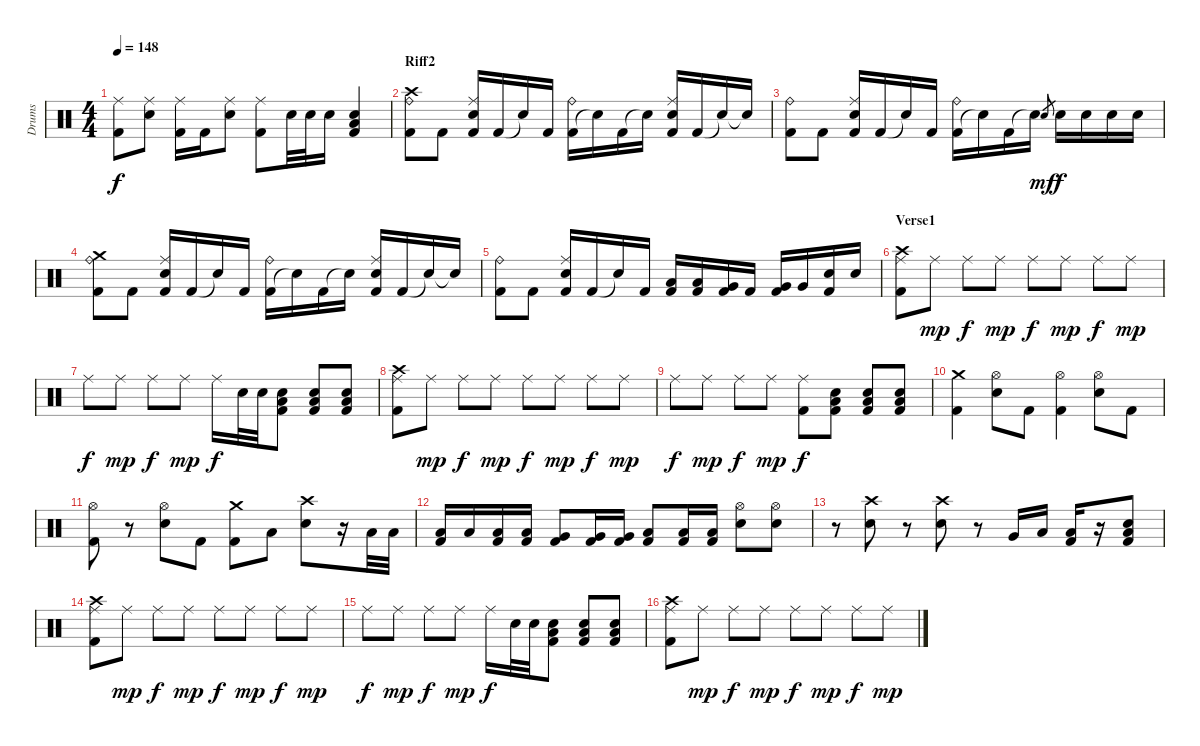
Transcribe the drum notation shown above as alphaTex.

\track ("Drums" "Drums") {instrument percussion}
\staff {score}
\articulation defaults
\ts (4 4)
\tempo 148
\clef neutral
\ks c
("Kick (hit) 2" "Ride (middle)").8{dy f} ("Electric Snare (hit)" "Ride (middle)").8 ("Kick (hit) 2" "Ride (middle)").16 "Kick (hit) 2".16 ("Electric Snare (hit)" "Ride (middle)").8 ("Kick (hit) 2" "Ride (middle)").8 "Electric Snare (hit)".32 "Electric Snare (hit)".32 "Electric Snare (hit)".16 ("Kick (hit) 2" "Electric Snare (hit)" "Low Floor Tom (hit)").4 |
\section ("" "Riff2")
("Kick (hit) 2" "Ride (bell)" "Crash high (hit)").8 "Kick (hit) 2".8 ("Kick (hit) 2" "Electric Snare (hit)" "Ride (middle)").16 "Kick (hit) 2".16 "Snare (hit)"{t}.16 "Kick (hit) 2".16 ("Kick (hit) 2" "Ride (bell)").16 "Snare (hit)"{t}.16 "Kick (hit) 2".16 "Snare (hit)"{t}.16 ("Kick (hit) 2" "Electric Snare (hit)" "Ride (middle)").16 "Kick (hit) 2".16 "Snare (hit)"{t}.16 "Snare (hit)"{t}.16 |
("Kick (hit) 2" "Ride (bell)").8 "Kick (hit) 2".8 ("Kick (hit) 2" "Electric Snare (hit)" "Ride (middle)").16 "Kick (hit) 2".16 "Snare (hit)"{t}.16 "Kick (hit) 2".16 ("Kick (hit) 2" "Ride (bell)").16 "Snare (hit)"{t}.16 "Kick (hit) 2".16 "Snare (hit)"{t}.16 "Electric Snare (hit)".8{gr dy mf} "Electric Snare (hit)".16{dy f} "Electric Snare (hit)".16 "Electric Snare (hit)".16 "Electric Snare (hit)".16 |
("Kick (hit) 2" "Ride (bell)" "Crash medium (hit)").8 "Kick (hit) 2".8 ("Kick (hit) 2" "Electric Snare (hit)" "Ride (middle)").16 "Kick (hit) 2".16 "Snare (hit)"{t}.16 "Kick (hit) 2".16 ("Kick (hit) 2" "Ride (bell)").16 "Snare (hit)"{t}.16 "Kick (hit) 2".16 "Snare (hit)"{t}.16 ("Kick (hit) 2" "Electric Snare (hit)" "Ride (middle)").16 "Kick (hit) 2".16 "Snare (hit)"{t}.16 "Snare (hit)"{t}.16 |
("Kick (hit) 2" "Ride (bell)").8 "Kick (hit) 2".8 ("Kick (hit) 2" "Electric Snare (hit)" "Ride (middle)").16 "Kick (hit) 2".16 "Snare (hit)"{t}.16 "Kick (hit) 2".16 ("Kick (hit) 2" "Low Tom (hit)").16 ("Kick (hit) 2" "Low Tom (hit)").16 ("Kick (hit) 2" "Very Low Tom (hit)").16 "Kick (hit) 2".16 ("Kick (hit) 2" "Very Low Tom (hit)").16 "Very Low Tom (hit)".16 ("Kick (hit) 2" "Electric Snare (hit)").16 "Electric Snare (hit)".16 |
\section ("" "Verse1")
("Kick (hit) 2" "Ride (middle)" "Crash high (hit)").8 "Ride (middle)".8{dy mp} "Ride (middle)".8{dy f} "Ride (middle)".8{dy mp} "Ride (middle)".8{dy f} "Ride (middle)".8{dy mp} "Ride (middle)".8{dy f} "Ride (middle)".8{dy mp} |
"Ride (middle)".8{dy f} "Ride (middle)".8{dy mp} "Ride (middle)".8{dy f} "Ride (middle)".8{dy mp} "Ride (middle)".16{dy f} "Electric Snare (hit)".32 "Electric Snare (hit)".32 ("Kick (hit) 2" "Electric Snare (hit)" "Low Floor Tom (hit)").8 ("Kick (hit) 2" "Electric Snare (hit)" "Low Floor Tom (hit)").8 ("Kick (hit) 2" "Electric Snare (hit)" "Low Floor Tom (hit)").8 |
("Kick (hit) 2" "Ride (middle)" "Crash high (hit)").8 "Ride (middle)".8{dy mp} "Ride (middle)".8{dy f} "Ride (middle)".8{dy mp} "Ride (middle)".8{dy f} "Ride (middle)".8{dy mp} "Ride (middle)".8{dy f} "Ride (middle)".8{dy mp} |
"Ride (middle)".8{dy f} "Ride (middle)".8{dy mp} "Ride (middle)".8{dy f} "Ride (middle)".8{dy mp} ("Kick (hit) 2" "Ride (middle)").8{dy f} ("Kick (hit) 2" "Electric Snare (hit)" "Low Floor Tom (hit)").8 ("Kick (hit) 2" "Electric Snare (hit)" "Low Floor Tom (hit)").8 ("Kick (hit) 2" "Electric Snare (hit)" "Low Floor Tom (hit)").8 |
("Kick (hit) 2" "Crash medium (hit)").4 ("Electric Snare (hit)" "Hi-Hat (open)").8 "Kick (hit) 2".8 ("Kick (hit) 2" "Hi-Hat (open)").4 ("Electric Snare (hit)" "Hi-Hat (open)").8 "Kick (hit) 2".8 |
("Kick (hit) 2" "Hi-Hat (open)").8 r.8 ("Electric Snare (hit)" "Hi-Hat (open)").8 "Kick (hit) 2".8 ("Kick (hit) 2" "Crash medium (hit)").8 "Low Tom (hit)".8 ("Electric Snare (hit)" "Crash high (hit)").8 r.16 "Low Tom (hit)".32 "Low Tom (hit)".32 |
("Kick (hit) 2" "Low Tom (hit)").16 "Low Tom (hit)".16 ("Kick (hit) 2" "Low Tom (hit)").16 ("Kick (hit) 2" "Low Tom (hit)").16 ("Kick (hit) 2" "Very Low Tom (hit)").8 ("Kick (hit) 2" "Very Low Tom (hit)").16 ("Kick (hit) 2" "Very Low Tom (hit)").16 ("Kick (hit) 2" "Low Floor Tom (hit)").8 ("Kick (hit) 2" "Low Floor Tom (hit)").16 ("Kick (hit) 2" "Low Floor Tom (hit)").16 ("Electric Snare (hit)" "Hi-Hat (open)").8 ("Electric Snare (hit)" "Hi-Hat (open)").8 |
r.8 ("Electric Snare (hit)" "Crash high (hit)").8 r.8 ("Electric Snare (hit)" "Crash high (hit)").8 r.8 "Very Low Tom (hit)".16 "Low Tom (hit)".16 ("Kick (hit) 2" "Low Tom (hit)").16 r.16 ("Kick (hit) 2" "Electric Snare (hit)" "Low Floor Tom (hit)").8 |
("Kick (hit) 2" "Ride (middle)" "Crash high (hit)").8 "Ride (middle)".8{dy mp} "Ride (middle)".8{dy f} "Ride (middle)".8{dy mp} "Ride (middle)".8{dy f} "Ride (middle)".8{dy mp} "Ride (middle)".8{dy f} "Ride (middle)".8{dy mp} |
"Ride (middle)".8{dy f} "Ride (middle)".8{dy mp} "Ride (middle)".8{dy f} "Ride (middle)".8{dy mp} "Ride (middle)".16{dy f} "Electric Snare (hit)".32 "Electric Snare (hit)".32 ("Kick (hit) 2" "Electric Snare (hit)" "Low Floor Tom (hit)").8 ("Kick (hit) 2" "Electric Snare (hit)" "Low Floor Tom (hit)").8 ("Kick (hit) 2" "Electric Snare (hit)" "Low Floor Tom (hit)").8 |
("Kick (hit) 2" "Ride (middle)" "Crash high (hit)").8 "Ride (middle)".8{dy mp} "Ride (middle)".8{dy f} "Ride (middle)".8{dy mp} "Ride (middle)".8{dy f} "Ride (middle)".8{dy mp} "Ride (middle)".8{dy f} "Ride (middle)".8{dy mp}
